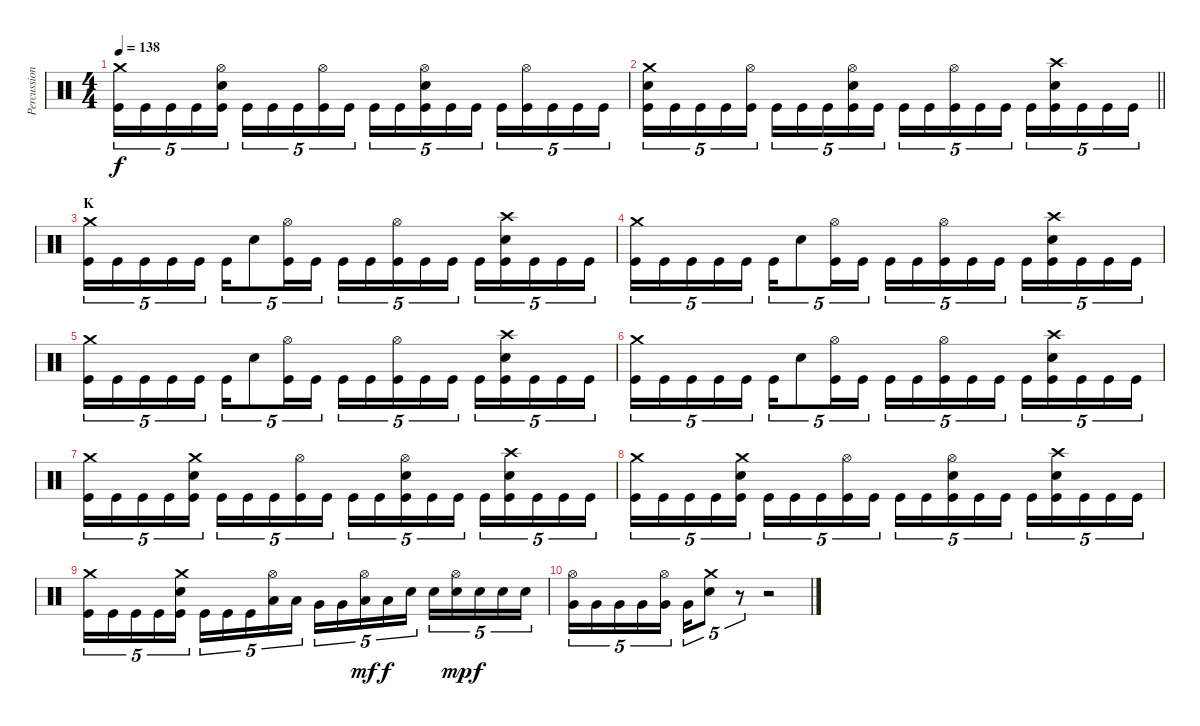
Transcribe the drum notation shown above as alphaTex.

\track ("Percussion" "Percussion") {instrument percussion}
\staff {score}
\articulation defaults
\ts (4 4)
\tempo 138
\clef neutral
\ks c
("Kick (hit)" "Crash medium (hit)").16{tu (5 4) dy f} "Kick (hit)".16{tu (5 4)} "Kick (hit)".16{tu (5 4)} "Kick (hit)".16{tu (5 4)} ("Kick (hit)" "Snare (hit) 2" "Hi-Hat (open)").16{tu (5 4)} "Kick (hit)".16{tu (5 4)} "Kick (hit)".16{tu (5 4)} "Kick (hit)".16{tu (5 4)} ("Kick (hit)" "Hi-Hat (open)").16{tu (5 4)} "Kick (hit)".16{tu (5 4)} "Kick (hit)".16{tu (5 4)} "Kick (hit)".16{tu (5 4)} ("Kick (hit)" "Snare (hit) 2" "Hi-Hat (open)").16{tu (5 4)} "Kick (hit)".16{tu (5 4)} "Kick (hit)".16{tu (5 4)} "Kick (hit)".16{tu (5 4)} ("Kick (hit)" "Hi-Hat (open)").16{tu (5 4)} "Kick (hit)".16{tu (5 4)} "Kick (hit)".16{tu (5 4)} "Kick (hit)".16{tu (5 4)} |
\barLineRight lightlight
("Kick (hit)" "Snare (hit) 2" "Crash medium (hit)").16{tu (5 4)} "Kick (hit)".16{tu (5 4)} "Kick (hit)".16{tu (5 4)} "Kick (hit)".16{tu (5 4)} ("Kick (hit)" "Hi-Hat (open)").16{tu (5 4)} "Kick (hit)".16{tu (5 4)} "Kick (hit)".16{tu (5 4)} "Kick (hit)".16{tu (5 4)} ("Kick (hit)" "Snare (hit) 2" "Hi-Hat (open)").16{tu (5 4)} "Kick (hit)".16{tu (5 4)} "Kick (hit)".16{tu (5 4)} "Kick (hit)".16{tu (5 4)} ("Kick (hit)" "Hi-Hat (open)").16{tu (5 4)} "Kick (hit)".16{tu (5 4)} "Kick (hit)".16{tu (5 4)} "Kick (hit)".16{tu (5 4)} ("Kick (hit)" "Snare (hit) 2" "Crash high (hit)").16{tu (5 4)} "Kick (hit)".16{tu (5 4)} "Kick (hit)".16{tu (5 4)} "Kick (hit)".16{tu (5 4)} |
\section ("" "K")
("Kick (hit)" "Crash medium (hit)").16{tu (5 4)} "Kick (hit)".16{tu (5 4)} "Kick (hit)".16{tu (5 4)} "Kick (hit)".16{tu (5 4)} "Kick (hit)".16{tu (5 4)} "Kick (hit)".16{tu (5 4)} "Snare (hit) 2".8{tu (5 4)} ("Kick (hit)" "Hi-Hat (open)").16{tu (5 4)} "Kick (hit)".16{tu (5 4)} "Kick (hit)".16{tu (5 4)} "Kick (hit)".16{tu (5 4)} ("Kick (hit)" "Hi-Hat (open)").16{tu (5 4)} "Kick (hit)".16{tu (5 4)} "Kick (hit)".16{tu (5 4)} "Kick (hit)".16{tu (5 4)} ("Kick (hit)" "Snare (hit) 2" "Crash high (hit)").16{tu (5 4)} "Kick (hit)".16{tu (5 4)} "Kick (hit)".16{tu (5 4)} "Kick (hit)".16{tu (5 4)} |
("Kick (hit)" "Crash medium (hit)").16{tu (5 4)} "Kick (hit)".16{tu (5 4)} "Kick (hit)".16{tu (5 4)} "Kick (hit)".16{tu (5 4)} "Kick (hit)".16{tu (5 4)} "Kick (hit)".16{tu (5 4)} "Snare (hit) 2".8{tu (5 4)} ("Kick (hit)" "Hi-Hat (open)").16{tu (5 4)} "Kick (hit)".16{tu (5 4)} "Kick (hit)".16{tu (5 4)} "Kick (hit)".16{tu (5 4)} ("Kick (hit)" "Hi-Hat (open)").16{tu (5 4)} "Kick (hit)".16{tu (5 4)} "Kick (hit)".16{tu (5 4)} "Kick (hit)".16{tu (5 4)} ("Kick (hit)" "Snare (hit) 2" "Crash high (hit)").16{tu (5 4)} "Kick (hit)".16{tu (5 4)} "Kick (hit)".16{tu (5 4)} "Kick (hit)".16{tu (5 4)} |
("Kick (hit)" "Crash medium (hit)").16{tu (5 4)} "Kick (hit)".16{tu (5 4)} "Kick (hit)".16{tu (5 4)} "Kick (hit)".16{tu (5 4)} "Kick (hit)".16{tu (5 4)} "Kick (hit)".16{tu (5 4)} "Snare (hit) 2".8{tu (5 4)} ("Kick (hit)" "Hi-Hat (open)").16{tu (5 4)} "Kick (hit)".16{tu (5 4)} "Kick (hit)".16{tu (5 4)} "Kick (hit)".16{tu (5 4)} ("Kick (hit)" "Hi-Hat (open)").16{tu (5 4)} "Kick (hit)".16{tu (5 4)} "Kick (hit)".16{tu (5 4)} "Kick (hit)".16{tu (5 4)} ("Kick (hit)" "Snare (hit) 2" "Crash high (hit)").16{tu (5 4)} "Kick (hit)".16{tu (5 4)} "Kick (hit)".16{tu (5 4)} "Kick (hit)".16{tu (5 4)} |
("Kick (hit)" "Crash medium (hit)").16{tu (5 4)} "Kick (hit)".16{tu (5 4)} "Kick (hit)".16{tu (5 4)} "Kick (hit)".16{tu (5 4)} "Kick (hit)".16{tu (5 4)} "Kick (hit)".16{tu (5 4)} "Snare (hit) 2".8{tu (5 4)} ("Kick (hit)" "Hi-Hat (open)").16{tu (5 4)} "Kick (hit)".16{tu (5 4)} "Kick (hit)".16{tu (5 4)} "Kick (hit)".16{tu (5 4)} ("Kick (hit)" "Hi-Hat (open)").16{tu (5 4)} "Kick (hit)".16{tu (5 4)} "Kick (hit)".16{tu (5 4)} "Kick (hit)".16{tu (5 4)} ("Kick (hit)" "Snare (hit) 2" "Crash high (hit)").16{tu (5 4)} "Kick (hit)".16{tu (5 4)} "Kick (hit)".16{tu (5 4)} "Kick (hit)".16{tu (5 4)} |
("Kick (hit)" "Crash medium (hit)").16{tu (5 4)} "Kick (hit)".16{tu (5 4)} "Kick (hit)".16{tu (5 4)} "Kick (hit)".16{tu (5 4)} ("Kick (hit)" "Snare (hit) 2" "Crash medium (hit)").16{tu (5 4)} "Kick (hit)".16{tu (5 4)} "Kick (hit)".16{tu (5 4)} "Kick (hit)".16{tu (5 4)} ("Kick (hit)" "Hi-Hat (open)").16{tu (5 4)} "Kick (hit)".16{tu (5 4)} "Kick (hit)".16{tu (5 4)} "Kick (hit)".16{tu (5 4)} ("Kick (hit)" "Snare (hit) 2" "Hi-Hat (open)").16{tu (5 4)} "Kick (hit)".16{tu (5 4)} "Kick (hit)".16{tu (5 4)} "Kick (hit)".16{tu (5 4)} ("Kick (hit)" "Snare (hit) 2" "Crash high (hit)").16{tu (5 4)} "Kick (hit)".16{tu (5 4)} "Kick (hit)".16{tu (5 4)} "Kick (hit)".16{tu (5 4)} |
("Kick (hit)" "Crash medium (hit)").16{tu (5 4)} "Kick (hit)".16{tu (5 4)} "Kick (hit)".16{tu (5 4)} "Kick (hit)".16{tu (5 4)} ("Kick (hit)" "Snare (hit) 2" "Crash medium (hit)").16{tu (5 4)} "Kick (hit)".16{tu (5 4)} "Kick (hit)".16{tu (5 4)} "Kick (hit)".16{tu (5 4)} ("Kick (hit)" "Hi-Hat (open)").16{tu (5 4)} "Kick (hit)".16{tu (5 4)} "Kick (hit)".16{tu (5 4)} "Kick (hit)".16{tu (5 4)} ("Kick (hit)" "Snare (hit) 2" "Hi-Hat (open)").16{tu (5 4)} "Kick (hit)".16{tu (5 4)} "Kick (hit)".16{tu (5 4)} "Kick (hit)".16{tu (5 4)} ("Kick (hit)" "Snare (hit) 2" "Crash high (hit)").16{tu (5 4)} "Kick (hit)".16{tu (5 4)} "Kick (hit)".16{tu (5 4)} "Kick (hit)".16{tu (5 4)} |
("Kick (hit)" "Crash medium (hit)").16{tu (5 4)} "Kick (hit)".16{tu (5 4)} "Kick (hit)".16{tu (5 4)} "Kick (hit)".16{tu (5 4)} ("Kick (hit)" "Snare (hit) 2" "Crash medium (hit)").16{tu (5 4)} "Kick (hit)".16{tu (5 4)} "Kick (hit)".16{tu (5 4)} "Kick (hit)".16{tu (5 4)} ("Low Tom (hit)" "Hi-Hat (open)").16{tu (5 4)} "Low Tom (hit)".16{tu (5 4)} "Very Low Tom (hit)".16{tu (5 4)} "Very Low Tom (hit)".16{tu (5 4)} ("Low Floor Tom (hit)" "Hi-Hat (open)").16{tu (5 4) dy mf} "Low Floor Tom (hit)".16{tu (5 4) dy f} "Snare (hit) 2".16{tu (5 4)} "Snare (hit) 2".16{tu (5 4)} ("Snare (hit) 2" "Hi-Hat (open)").16{tu (5 4) dy mp} "Snare (hit) 2".16{tu (5 4) dy f} "Snare (hit) 2".16{tu (5 4)} "Snare (hit) 2".16{tu (5 4)} |
("Very Low Tom (hit)" "Hi-Hat (open)").16{tu (5 4)} "Very Low Tom (hit)".16{tu (5 4)} "Very Low Tom (hit)".16{tu (5 4)} "Very Low Tom (hit)".16{tu (5 4)} ("Very Low Tom (hit)" "Hi-Hat (open)").16{tu (5 4)} "Very Low Tom (hit)".16{tu (5 4)} ("Snare (hit) 2" "Crash medium (hit)").8{tu (5 4)} r.8{tu (5 4) volume 0} r.2
